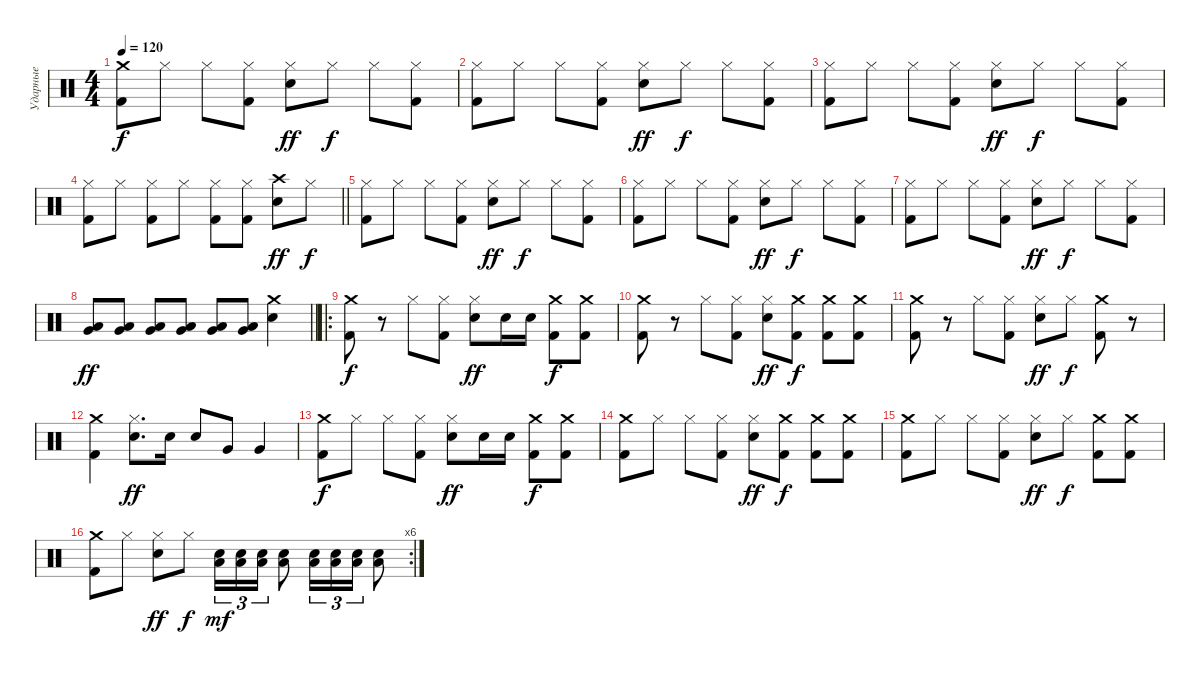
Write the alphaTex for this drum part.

\track ("Ударные" "Ударные") {instrument percussion}
\staff {score}
\articulation defaults
\ts (4 4)
\tempo 120
\clef neutral
\ks c
("Crash medium (hit)" "Kick (hit) 2").8{dy f} "Hi-Hat (closed)".8 "Hi-Hat (closed)".8 ("Hi-Hat (closed)" "Kick (hit) 2").8 ("Hi-Hat (closed)" "Snare (hit) 2").8{dy ff} "Hi-Hat (closed)".8{dy f} "Hi-Hat (closed)".8 ("Hi-Hat (closed)" "Kick (hit) 2").8 |
("Hi-Hat (closed)" "Kick (hit) 2").8 "Hi-Hat (closed)".8 "Hi-Hat (closed)".8 ("Hi-Hat (closed)" "Kick (hit) 2").8 ("Hi-Hat (closed)" "Snare (hit) 2").8{dy ff} "Hi-Hat (closed)".8{dy f} "Hi-Hat (closed)".8 ("Hi-Hat (closed)" "Kick (hit) 2").8 |
("Hi-Hat (closed)" "Kick (hit) 2").8 "Hi-Hat (closed)".8 "Hi-Hat (closed)".8 ("Hi-Hat (closed)" "Kick (hit) 2").8 ("Hi-Hat (closed)" "Snare (hit) 2").8{dy ff} "Hi-Hat (closed)".8{dy f} "Hi-Hat (closed)".8 ("Hi-Hat (closed)" "Kick (hit) 2").8 |
\barLineRight lightlight
("Hi-Hat (closed)" "Kick (hit) 2").8 "Hi-Hat (closed)".8 ("Hi-Hat (closed)" "Kick (hit) 2").8 "Hi-Hat (closed)".8 ("Hi-Hat (closed)" "Kick (hit) 2").8 ("Hi-Hat (closed)" "Kick (hit) 2").8 ("Crash high (hit)" "Snare (hit) 2").8{dy ff} "Hi-Hat (closed)".8{dy f} |
("Hi-Hat (closed)" "Kick (hit) 2").8 "Hi-Hat (closed)".8 "Hi-Hat (closed)".8 ("Hi-Hat (closed)" "Kick (hit) 2").8 ("Hi-Hat (closed)" "Snare (hit) 2").8{dy ff} "Hi-Hat (closed)".8{dy f} "Hi-Hat (closed)".8 ("Hi-Hat (closed)" "Kick (hit) 2").8 |
("Hi-Hat (closed)" "Kick (hit) 2").8 "Hi-Hat (closed)".8 "Hi-Hat (closed)".8 ("Hi-Hat (closed)" "Kick (hit) 2").8 ("Hi-Hat (closed)" "Snare (hit) 2").8{dy ff} "Hi-Hat (closed)".8{dy f} "Hi-Hat (closed)".8 ("Hi-Hat (closed)" "Kick (hit) 2").8 |
("Hi-Hat (closed)" "Kick (hit) 2").8 "Hi-Hat (closed)".8 "Hi-Hat (closed)".8 ("Hi-Hat (closed)" "Kick (hit) 2").8 ("Hi-Hat (closed)" "Snare (hit) 2").8{dy ff} "Hi-Hat (closed)".8{dy f} "Hi-Hat (closed)".8 ("Hi-Hat (closed)" "Kick (hit) 2").8 |
\barLineRight lightlight
("Low Tom (hit)" "Very Low Tom (hit)").8{dy ff} ("Low Tom (hit)" "Very Low Tom (hit)").8 ("Low Tom (hit)" "Very Low Tom (hit)").8 ("Low Tom (hit)" "Very Low Tom (hit)").8 ("Low Tom (hit)" "Very Low Tom (hit)").8 ("Low Tom (hit)" "Very Low Tom (hit)").8 ("Crash medium (hit)" "Snare (hit) 2").4 |
\ro
("Crash medium (hit)" "Kick (hit) 2").8{dy f} r.8 "Hi-Hat (closed)".8 ("Hi-Hat (closed)" "Kick (hit) 2").8 ("Hi-Hat (closed)" "Snare (hit) 2").8{dy ff} "Snare (hit) 2".16 "Snare (hit) 2".16 ("Crash medium (hit)" "Kick (hit) 2").8{dy f} ("Crash medium (hit)" "Kick (hit) 2").8 |
("Crash medium (hit)" "Kick (hit) 2").8 r.8 "Hi-Hat (closed)".8 ("Hi-Hat (closed)" "Kick (hit) 2").8 ("Hi-Hat (closed)" "Snare (hit) 2").8{dy ff} ("Crash medium (hit)" "Kick (hit) 2").8{dy f} ("Crash medium (hit)" "Kick (hit) 2").8 ("Crash medium (hit)" "Kick (hit) 2").8 |
("Crash medium (hit)" "Kick (hit) 2").8 r.8 "Hi-Hat (closed)".8 ("Hi-Hat (closed)" "Kick (hit) 2").8 ("Hi-Hat (closed)" "Snare (hit) 2").8{dy ff} "Hi-Hat (closed)".8{dy f} ("Crash medium (hit)" "Kick (hit) 2").8 r.8 |
("Crash medium (hit)" "Kick (hit) 2").4 ("Hi-Hat (closed)" "Snare (hit) 2").8{d dy ff} "Snare (hit) 2".16 "Snare (hit) 2".8 "Very Low Tom (hit)".8 "Very Low Tom (hit)".4 |
("Crash medium (hit)" "Kick (hit) 2").8{dy f} "Hi-Hat (closed)".8 "Hi-Hat (closed)".8 ("Hi-Hat (closed)" "Kick (hit) 2").8 ("Hi-Hat (closed)" "Snare (hit) 2").8{dy ff} "Snare (hit) 2".16 "Snare (hit) 2".16 ("Crash medium (hit)" "Kick (hit) 2").8{dy f} ("Crash medium (hit)" "Kick (hit) 2").8 |
("Crash medium (hit)" "Kick (hit) 2").8 "Hi-Hat (closed)".8 "Hi-Hat (closed)".8 ("Hi-Hat (closed)" "Kick (hit) 2").8 ("Hi-Hat (closed)" "Snare (hit) 2").8{dy ff} ("Crash medium (hit)" "Kick (hit) 2").8{dy f} ("Crash medium (hit)" "Kick (hit) 2").8 ("Crash medium (hit)" "Kick (hit) 2").8 |
("Crash medium (hit)" "Kick (hit) 2").8 "Hi-Hat (closed)".8 "Hi-Hat (closed)".8 ("Hi-Hat (closed)" "Kick (hit) 2").8 ("Hi-Hat (closed)" "Snare (hit) 2").8{dy ff} "Hi-Hat (closed)".8{dy f} ("Crash medium (hit)" "Kick (hit) 2").8 ("Crash medium (hit)" "Kick (hit) 2").8 |
\rc 6
("Crash medium (hit)" "Kick (hit) 2").8 "Hi-Hat (closed)".8 ("Hi-Hat (closed)" "Snare (hit) 2").8{dy ff} "Hi-Hat (closed)".8{dy f} ("Snare (hit) 2" "Low Floor Tom (hit)").16{tu (3 2) dy mf} ("Snare (hit) 2" "Low Floor Tom (hit)").16{tu (3 2)} ("Snare (hit) 2" "Low Floor Tom (hit)").16{tu (3 2)} ("Snare (hit) 2" "Low Floor Tom (hit)").8 ("Snare (hit) 2" "Low Floor Tom (hit)").16{tu (3 2)} ("Snare (hit) 2" "Low Floor Tom (hit)").16{tu (3 2)} ("Snare (hit) 2" "Low Floor Tom (hit)").16{tu (3 2)} ("Snare (hit) 2" "Low Floor Tom (hit)").8
